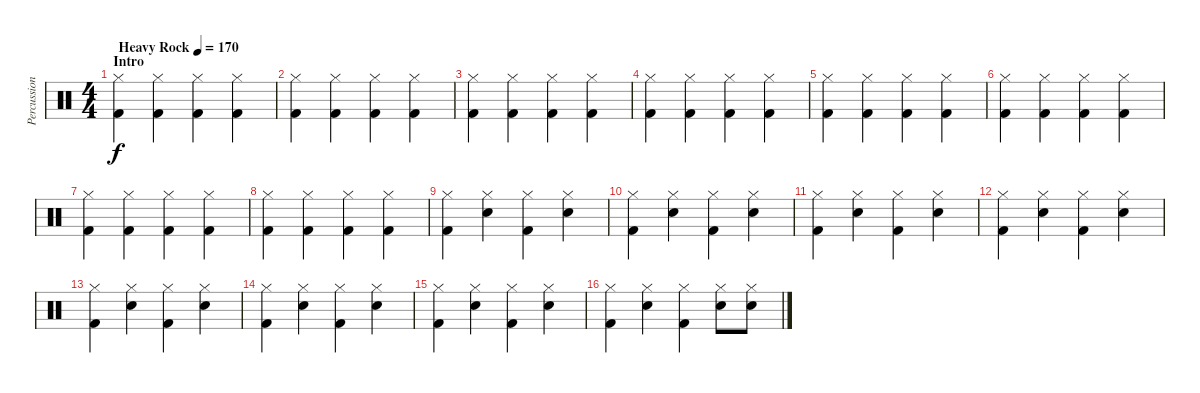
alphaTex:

\track ("Percussion" "Percussion") {instrument percussion}
\staff {score}
\articulation defaults
\ts (4 4)
\section ("" "Intro")
\tempo (170 "Heavy Rock")
\clef neutral
\ks c
("Hi-Hat (closed)" "Kick (hit) 2").4{dy f} ("Hi-Hat (closed)" "Kick (hit) 2").4 ("Hi-Hat (closed)" "Kick (hit) 2").4 ("Hi-Hat (closed)" "Kick (hit) 2").4 |
("Hi-Hat (closed)" "Kick (hit) 2").4 ("Hi-Hat (closed)" "Kick (hit) 2").4 ("Hi-Hat (closed)" "Kick (hit) 2").4 ("Hi-Hat (closed)" "Kick (hit) 2").4 |
("Hi-Hat (closed)" "Kick (hit) 2").4 ("Hi-Hat (closed)" "Kick (hit) 2").4 ("Hi-Hat (closed)" "Kick (hit) 2").4 ("Hi-Hat (closed)" "Kick (hit) 2").4 |
("Hi-Hat (closed)" "Kick (hit) 2").4 ("Hi-Hat (closed)" "Kick (hit) 2").4 ("Hi-Hat (closed)" "Kick (hit) 2").4 ("Hi-Hat (closed)" "Kick (hit) 2").4 |
("Hi-Hat (closed)" "Kick (hit) 2").4 ("Hi-Hat (closed)" "Kick (hit) 2").4 ("Hi-Hat (closed)" "Kick (hit) 2").4 ("Hi-Hat (closed)" "Kick (hit) 2").4 |
("Hi-Hat (closed)" "Kick (hit) 2").4 ("Hi-Hat (closed)" "Kick (hit) 2").4 ("Hi-Hat (closed)" "Kick (hit) 2").4 ("Hi-Hat (closed)" "Kick (hit) 2").4 |
("Hi-Hat (closed)" "Kick (hit) 2").4 ("Hi-Hat (closed)" "Kick (hit) 2").4 ("Hi-Hat (closed)" "Kick (hit) 2").4 ("Hi-Hat (closed)" "Kick (hit) 2").4 |
("Hi-Hat (closed)" "Kick (hit) 2").4 ("Hi-Hat (closed)" "Kick (hit) 2").4 ("Hi-Hat (closed)" "Kick (hit) 2").4 ("Hi-Hat (closed)" "Kick (hit) 2").4 |
("Hi-Hat (closed)" "Kick (hit) 2").4 ("Hi-Hat (closed)" "Electric Snare (hit)").4 ("Hi-Hat (closed)" "Kick (hit) 2").4 ("Hi-Hat (closed)" "Electric Snare (hit)").4 |
("Hi-Hat (closed)" "Kick (hit) 2").4 ("Hi-Hat (closed)" "Electric Snare (hit)").4 ("Hi-Hat (closed)" "Kick (hit) 2").4 ("Hi-Hat (closed)" "Electric Snare (hit)").4 |
("Hi-Hat (closed)" "Kick (hit) 2").4 ("Hi-Hat (closed)" "Electric Snare (hit)").4 ("Hi-Hat (closed)" "Kick (hit) 2").4 ("Hi-Hat (closed)" "Electric Snare (hit)").4 |
("Hi-Hat (closed)" "Kick (hit) 2").4 ("Hi-Hat (closed)" "Electric Snare (hit)").4 ("Hi-Hat (closed)" "Kick (hit) 2").4 ("Hi-Hat (closed)" "Electric Snare (hit)").4 |
("Hi-Hat (closed)" "Kick (hit) 2").4 ("Hi-Hat (closed)" "Electric Snare (hit)").4 ("Hi-Hat (closed)" "Kick (hit) 2").4 ("Hi-Hat (closed)" "Electric Snare (hit)").4 |
("Hi-Hat (closed)" "Kick (hit) 2").4 ("Hi-Hat (closed)" "Electric Snare (hit)").4 ("Hi-Hat (closed)" "Kick (hit) 2").4 ("Hi-Hat (closed)" "Electric Snare (hit)").4 |
("Hi-Hat (closed)" "Kick (hit) 2").4 ("Hi-Hat (closed)" "Electric Snare (hit)").4 ("Hi-Hat (closed)" "Kick (hit) 2").4 ("Hi-Hat (closed)" "Electric Snare (hit)").4 |
("Hi-Hat (closed)" "Kick (hit) 2").4 ("Hi-Hat (closed)" "Electric Snare (hit)").4 ("Hi-Hat (closed)" "Kick (hit) 2").4 ("Hi-Hat (closed)" "Electric Snare (hit)").8 ("Hi-Hat (closed)" "Electric Snare (hit)").8
